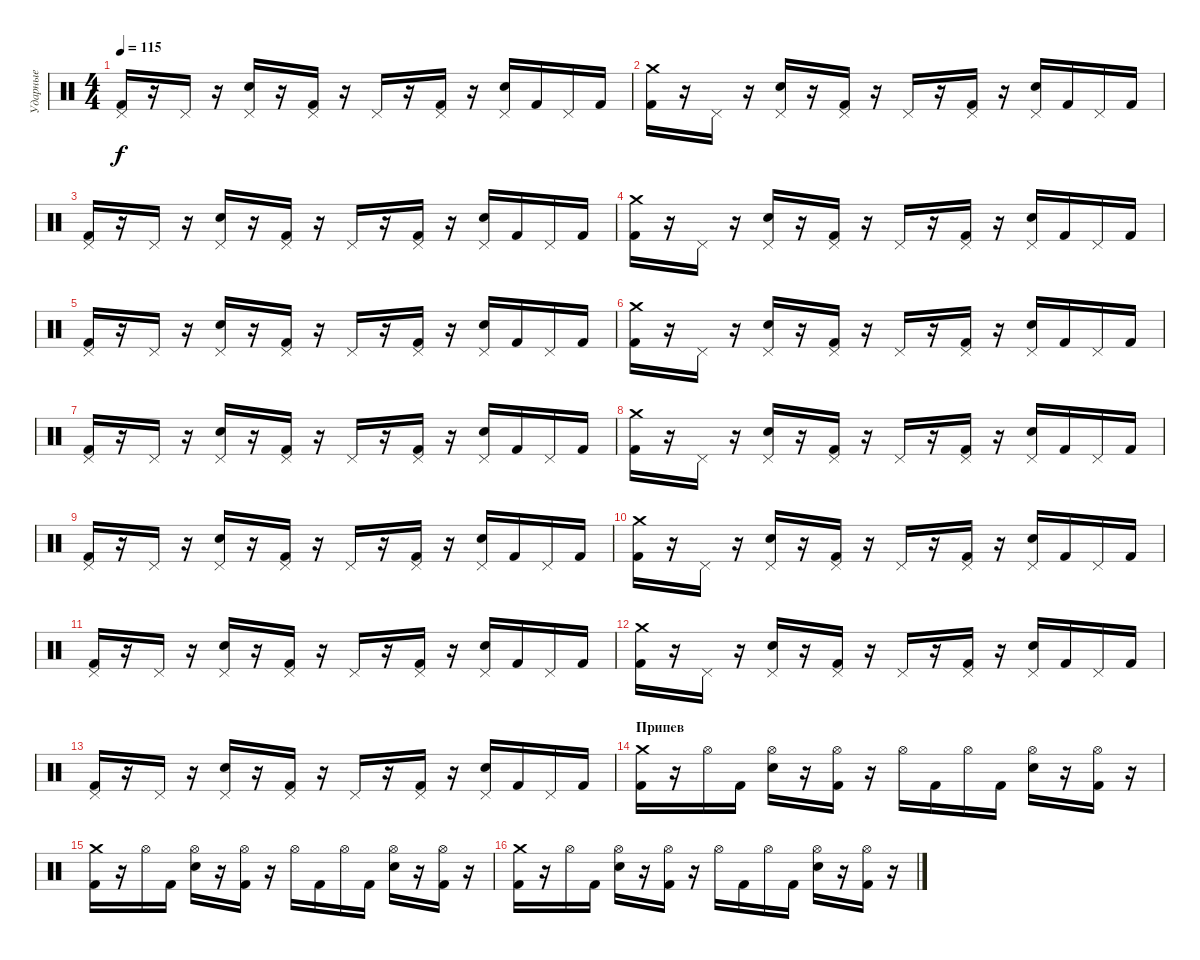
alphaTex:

\track ("Ударные" "Ударные") {instrument percussion}
\staff {score}
\articulation defaults
\ts (4 4)
\tempo 115
\clef neutral
\ks c
("Pedal Hi-Hat (hit)" "Kick (hit) 2").16{dy f} r.16 "Pedal Hi-Hat (hit)".16 r.16 ("Pedal Hi-Hat (hit)" "Electric Snare (hit)").16 r.16 ("Pedal Hi-Hat (hit)" "Kick (hit) 2").16 r.16 "Pedal Hi-Hat (hit)".16 r.16 ("Pedal Hi-Hat (hit)" "Kick (hit) 2").16 r.16 ("Pedal Hi-Hat (hit)" "Electric Snare (hit)").16 "Kick (hit) 2".16 "Pedal Hi-Hat (hit)".16 "Kick (hit) 2".16 |
("Crash medium (hit)" "Kick (hit) 2").16 r.16 "Pedal Hi-Hat (hit)".16 r.16 ("Pedal Hi-Hat (hit)" "Electric Snare (hit)").16 r.16 ("Pedal Hi-Hat (hit)" "Kick (hit) 2").16 r.16 "Pedal Hi-Hat (hit)".16 r.16 ("Pedal Hi-Hat (hit)" "Kick (hit) 2").16 r.16 ("Pedal Hi-Hat (hit)" "Electric Snare (hit)").16 "Kick (hit) 2".16 "Pedal Hi-Hat (hit)".16 "Kick (hit) 2".16 |
("Pedal Hi-Hat (hit)" "Kick (hit) 2").16 r.16 "Pedal Hi-Hat (hit)".16 r.16 ("Pedal Hi-Hat (hit)" "Electric Snare (hit)").16 r.16 ("Pedal Hi-Hat (hit)" "Kick (hit) 2").16 r.16 "Pedal Hi-Hat (hit)".16 r.16 ("Pedal Hi-Hat (hit)" "Kick (hit) 2").16 r.16 ("Pedal Hi-Hat (hit)" "Electric Snare (hit)").16 "Kick (hit) 2".16 "Pedal Hi-Hat (hit)".16 "Kick (hit) 2".16 |
("Crash medium (hit)" "Kick (hit) 2").16 r.16 "Pedal Hi-Hat (hit)".16 r.16 ("Pedal Hi-Hat (hit)" "Electric Snare (hit)").16 r.16 ("Pedal Hi-Hat (hit)" "Kick (hit) 2").16 r.16 "Pedal Hi-Hat (hit)".16 r.16 ("Pedal Hi-Hat (hit)" "Kick (hit) 2").16 r.16 ("Pedal Hi-Hat (hit)" "Electric Snare (hit)").16 "Kick (hit) 2".16 "Pedal Hi-Hat (hit)".16 "Kick (hit) 2".16 |
("Pedal Hi-Hat (hit)" "Kick (hit) 2").16 r.16 "Pedal Hi-Hat (hit)".16 r.16 ("Pedal Hi-Hat (hit)" "Electric Snare (hit)").16 r.16 ("Pedal Hi-Hat (hit)" "Kick (hit) 2").16 r.16 "Pedal Hi-Hat (hit)".16 r.16 ("Pedal Hi-Hat (hit)" "Kick (hit) 2").16 r.16 ("Pedal Hi-Hat (hit)" "Electric Snare (hit)").16 "Kick (hit) 2".16 "Pedal Hi-Hat (hit)".16 "Kick (hit) 2".16 |
("Crash medium (hit)" "Kick (hit) 2").16 r.16 "Pedal Hi-Hat (hit)".16 r.16 ("Pedal Hi-Hat (hit)" "Electric Snare (hit)").16 r.16 ("Pedal Hi-Hat (hit)" "Kick (hit) 2").16 r.16 "Pedal Hi-Hat (hit)".16 r.16 ("Pedal Hi-Hat (hit)" "Kick (hit) 2").16 r.16 ("Pedal Hi-Hat (hit)" "Electric Snare (hit)").16 "Kick (hit) 2".16 "Pedal Hi-Hat (hit)".16 "Kick (hit) 2".16 |
("Pedal Hi-Hat (hit)" "Kick (hit) 2").16 r.16 "Pedal Hi-Hat (hit)".16 r.16 ("Pedal Hi-Hat (hit)" "Electric Snare (hit)").16 r.16 ("Pedal Hi-Hat (hit)" "Kick (hit) 2").16 r.16 "Pedal Hi-Hat (hit)".16 r.16 ("Pedal Hi-Hat (hit)" "Kick (hit) 2").16 r.16 ("Pedal Hi-Hat (hit)" "Electric Snare (hit)").16 "Kick (hit) 2".16 "Pedal Hi-Hat (hit)".16 "Kick (hit) 2".16 |
("Crash medium (hit)" "Kick (hit) 2").16 r.16 "Pedal Hi-Hat (hit)".16 r.16 ("Pedal Hi-Hat (hit)" "Electric Snare (hit)").16 r.16 ("Pedal Hi-Hat (hit)" "Kick (hit) 2").16 r.16 "Pedal Hi-Hat (hit)".16 r.16 ("Pedal Hi-Hat (hit)" "Kick (hit) 2").16 r.16 ("Pedal Hi-Hat (hit)" "Electric Snare (hit)").16 "Kick (hit) 2".16 "Pedal Hi-Hat (hit)".16 "Kick (hit) 2".16 |
("Pedal Hi-Hat (hit)" "Kick (hit) 2").16 r.16 "Pedal Hi-Hat (hit)".16 r.16 ("Pedal Hi-Hat (hit)" "Electric Snare (hit)").16 r.16 ("Pedal Hi-Hat (hit)" "Kick (hit) 2").16 r.16 "Pedal Hi-Hat (hit)".16 r.16 ("Pedal Hi-Hat (hit)" "Kick (hit) 2").16 r.16 ("Pedal Hi-Hat (hit)" "Electric Snare (hit)").16 "Kick (hit) 2".16 "Pedal Hi-Hat (hit)".16 "Kick (hit) 2".16 |
("Crash medium (hit)" "Kick (hit) 2").16 r.16 "Pedal Hi-Hat (hit)".16 r.16 ("Pedal Hi-Hat (hit)" "Electric Snare (hit)").16 r.16 ("Pedal Hi-Hat (hit)" "Kick (hit) 2").16 r.16 "Pedal Hi-Hat (hit)".16 r.16 ("Pedal Hi-Hat (hit)" "Kick (hit) 2").16 r.16 ("Pedal Hi-Hat (hit)" "Electric Snare (hit)").16 "Kick (hit) 2".16 "Pedal Hi-Hat (hit)".16 "Kick (hit) 2".16 |
("Pedal Hi-Hat (hit)" "Kick (hit) 2").16 r.16 "Pedal Hi-Hat (hit)".16 r.16 ("Pedal Hi-Hat (hit)" "Electric Snare (hit)").16 r.16 ("Pedal Hi-Hat (hit)" "Kick (hit) 2").16 r.16 "Pedal Hi-Hat (hit)".16 r.16 ("Pedal Hi-Hat (hit)" "Kick (hit) 2").16 r.16 ("Pedal Hi-Hat (hit)" "Electric Snare (hit)").16 "Kick (hit) 2".16 "Pedal Hi-Hat (hit)".16 "Kick (hit) 2".16 |
("Crash medium (hit)" "Kick (hit) 2").16 r.16 "Pedal Hi-Hat (hit)".16 r.16 ("Pedal Hi-Hat (hit)" "Electric Snare (hit)").16 r.16 ("Pedal Hi-Hat (hit)" "Kick (hit) 2").16 r.16 "Pedal Hi-Hat (hit)".16 r.16 ("Pedal Hi-Hat (hit)" "Kick (hit) 2").16 r.16 ("Pedal Hi-Hat (hit)" "Electric Snare (hit)").16 "Kick (hit) 2".16 "Pedal Hi-Hat (hit)".16 "Kick (hit) 2".16 |
("Pedal Hi-Hat (hit)" "Kick (hit) 2").16 r.16 "Pedal Hi-Hat (hit)".16 r.16 ("Pedal Hi-Hat (hit)" "Electric Snare (hit)").16 r.16 ("Pedal Hi-Hat (hit)" "Kick (hit) 2").16 r.16 "Pedal Hi-Hat (hit)".16 r.16 ("Pedal Hi-Hat (hit)" "Kick (hit) 2").16 r.16 ("Pedal Hi-Hat (hit)" "Electric Snare (hit)").16 "Kick (hit) 2".16 "Pedal Hi-Hat (hit)".16 "Kick (hit) 2".16 |
\section ("" "Припев")
("Crash medium (hit)" "Kick (hit) 2").16 r.16 "Hi-Hat (open)".16 "Kick (hit) 2".16 ("Hi-Hat (open)" "Electric Snare (hit)").16 r.16 ("Hi-Hat (open)" "Kick (hit) 2").16 r.16 "Hi-Hat (open)".16 "Kick (hit) 2".16 "Hi-Hat (open)".16 "Kick (hit) 2".16 ("Hi-Hat (open)" "Electric Snare (hit)").16 r.16 ("Hi-Hat (open)" "Kick (hit) 2").16 r.16 |
("Crash medium (hit)" "Kick (hit) 2").16 r.16 "Hi-Hat (open)".16 "Kick (hit) 2".16 ("Hi-Hat (open)" "Electric Snare (hit)").16 r.16 ("Hi-Hat (open)" "Kick (hit) 2").16 r.16 "Hi-Hat (open)".16 "Kick (hit) 2".16 "Hi-Hat (open)".16 "Kick (hit) 2".16 ("Hi-Hat (open)" "Electric Snare (hit)").16 r.16 ("Hi-Hat (open)" "Kick (hit) 2").16 r.16 |
("Crash medium (hit)" "Kick (hit) 2").16 r.16 "Hi-Hat (open)".16 "Kick (hit) 2".16 ("Hi-Hat (open)" "Electric Snare (hit)").16 r.16 ("Hi-Hat (open)" "Kick (hit) 2").16 r.16 "Hi-Hat (open)".16 "Kick (hit) 2".16 "Hi-Hat (open)".16 "Kick (hit) 2".16 ("Hi-Hat (open)" "Electric Snare (hit)").16 r.16 ("Hi-Hat (open)" "Kick (hit) 2").16 r.16
